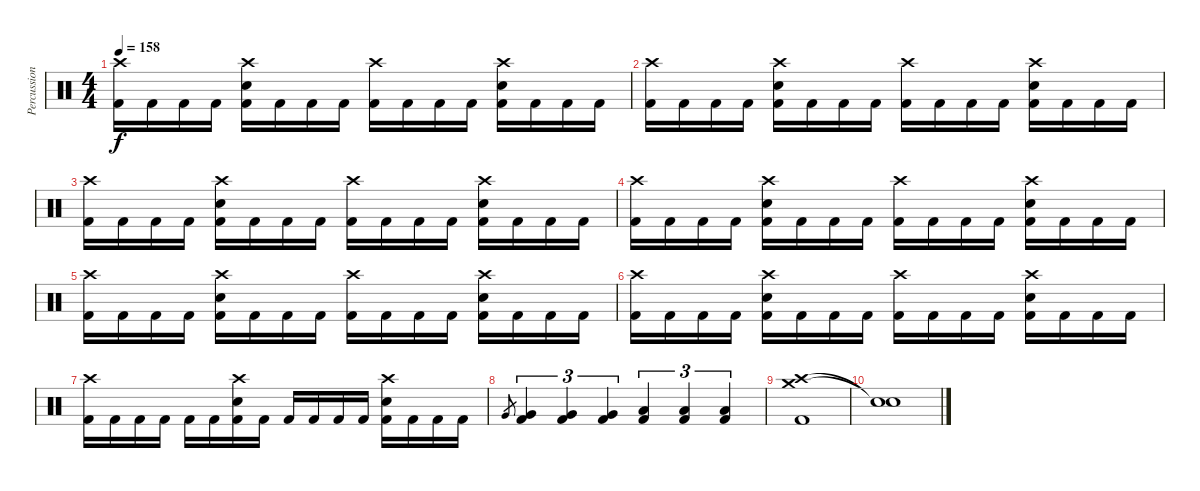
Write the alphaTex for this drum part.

\track ("Percussions" "Percussion") {instrument percussion}
\staff {score}
\articulation defaults
\ts (4 4)
\tempo 158
\clef neutral
\ks c
("Crash high (hit)" "Kick (hit) 2").16{dy f} "Kick (hit) 2".16 "Kick (hit) 2".16 "Kick (hit) 2".16 ("Crash high (hit)" "Electric Snare (hit)" "Kick (hit) 2").16 "Kick (hit) 2".16 "Kick (hit) 2".16 "Kick (hit) 2".16 ("Crash high (hit)" "Kick (hit) 2").16 "Kick (hit) 2".16 "Kick (hit) 2".16 "Kick (hit) 2".16 ("Crash high (hit)" "Electric Snare (hit)" "Kick (hit) 2").16 "Kick (hit) 2".16 "Kick (hit) 2".16 "Kick (hit) 2".16 |
("Crash high (hit)" "Kick (hit) 2").16 "Kick (hit) 2".16 "Kick (hit) 2".16 "Kick (hit) 2".16 ("Crash high (hit)" "Electric Snare (hit)" "Kick (hit) 2").16 "Kick (hit) 2".16 "Kick (hit) 2".16 "Kick (hit) 2".16 ("Crash high (hit)" "Kick (hit) 2").16 "Kick (hit) 2".16 "Kick (hit) 2".16 "Kick (hit) 2".16 ("Crash high (hit)" "Electric Snare (hit)" "Kick (hit) 2").16 "Kick (hit) 2".16 "Kick (hit) 2".16 "Kick (hit) 2".16 |
("Crash high (hit)" "Kick (hit) 2").16 "Kick (hit) 2".16 "Kick (hit) 2".16 "Kick (hit) 2".16 ("Crash high (hit)" "Electric Snare (hit)" "Kick (hit) 2").16 "Kick (hit) 2".16 "Kick (hit) 2".16 "Kick (hit) 2".16 ("Crash high (hit)" "Kick (hit) 2").16 "Kick (hit) 2".16 "Kick (hit) 2".16 "Kick (hit) 2".16 ("Crash high (hit)" "Electric Snare (hit)" "Kick (hit) 2").16 "Kick (hit) 2".16 "Kick (hit) 2".16 "Kick (hit) 2".16 |
("Crash high (hit)" "Kick (hit) 2").16 "Kick (hit) 2".16 "Kick (hit) 2".16 "Kick (hit) 2".16 ("Crash high (hit)" "Electric Snare (hit)" "Kick (hit) 2").16 "Kick (hit) 2".16 "Kick (hit) 2".16 "Kick (hit) 2".16 ("Crash high (hit)" "Kick (hit) 2").16 "Kick (hit) 2".16 "Kick (hit) 2".16 "Kick (hit) 2".16 ("Crash high (hit)" "Electric Snare (hit)" "Kick (hit) 2").16 "Kick (hit) 2".16 "Kick (hit) 2".16 "Kick (hit) 2".16 |
("Crash high (hit)" "Kick (hit) 2").16 "Kick (hit) 2".16 "Kick (hit) 2".16 "Kick (hit) 2".16 ("Crash high (hit)" "Electric Snare (hit)" "Kick (hit) 2").16 "Kick (hit) 2".16 "Kick (hit) 2".16 "Kick (hit) 2".16 ("Crash high (hit)" "Kick (hit) 2").16 "Kick (hit) 2".16 "Kick (hit) 2".16 "Kick (hit) 2".16 ("Crash high (hit)" "Electric Snare (hit)" "Kick (hit) 2").16 "Kick (hit) 2".16 "Kick (hit) 2".16 "Kick (hit) 2".16 |
("Crash high (hit)" "Kick (hit) 2").16 "Kick (hit) 2".16 "Kick (hit) 2".16 "Kick (hit) 2".16 ("Crash high (hit)" "Electric Snare (hit)" "Kick (hit) 2").16 "Kick (hit) 2".16 "Kick (hit) 2".16 "Kick (hit) 2".16 ("Crash high (hit)" "Kick (hit) 2").16 "Kick (hit) 2".16 "Kick (hit) 2".16 "Kick (hit) 2".16 ("Crash high (hit)" "Electric Snare (hit)" "Kick (hit) 2").16 "Kick (hit) 2".16 "Kick (hit) 2".16 "Kick (hit) 2".16 |
("Crash high (hit)" "Kick (hit) 2").16 "Kick (hit) 2".16 "Kick (hit) 2".16 "Kick (hit) 2".16 "Kick (hit) 2".16 "Kick (hit) 2".16 ("Crash high (hit)" "Electric Snare (hit)" "Kick (hit) 2").16 "Kick (hit) 2".16 "Kick (hit) 2".16 "Kick (hit) 2".16 "Kick (hit) 2".16 "Kick (hit) 2".16 ("Crash high (hit)" "Electric Snare (hit)" "Kick (hit) 2").16 "Kick (hit) 2".16 "Kick (hit) 2".16 "Kick (hit) 2".16 |
"Very Low Tom (hit)".8{gr} ("Very Low Tom (hit)" "Kick (hit) 2").4{tu (3 2)} ("Very Low Tom (hit)" "Kick (hit) 2").4{tu (3 2)} ("Very Low Tom (hit)" "Kick (hit) 2").4{tu (3 2)} ("Low Floor Tom (hit)" "Kick (hit) 2").4{tu (3 2)} ("Low Floor Tom (hit)" "Kick (hit) 2").4{tu (3 2)} ("Low Floor Tom (hit)" "Kick (hit) 2").4{tu (3 2)} |
("Crash medium (hit)" "Crash high (hit)" "Kick (hit) 2").1 |
("Snare (hit)"{t} "Snare (hit)"{t}).1
